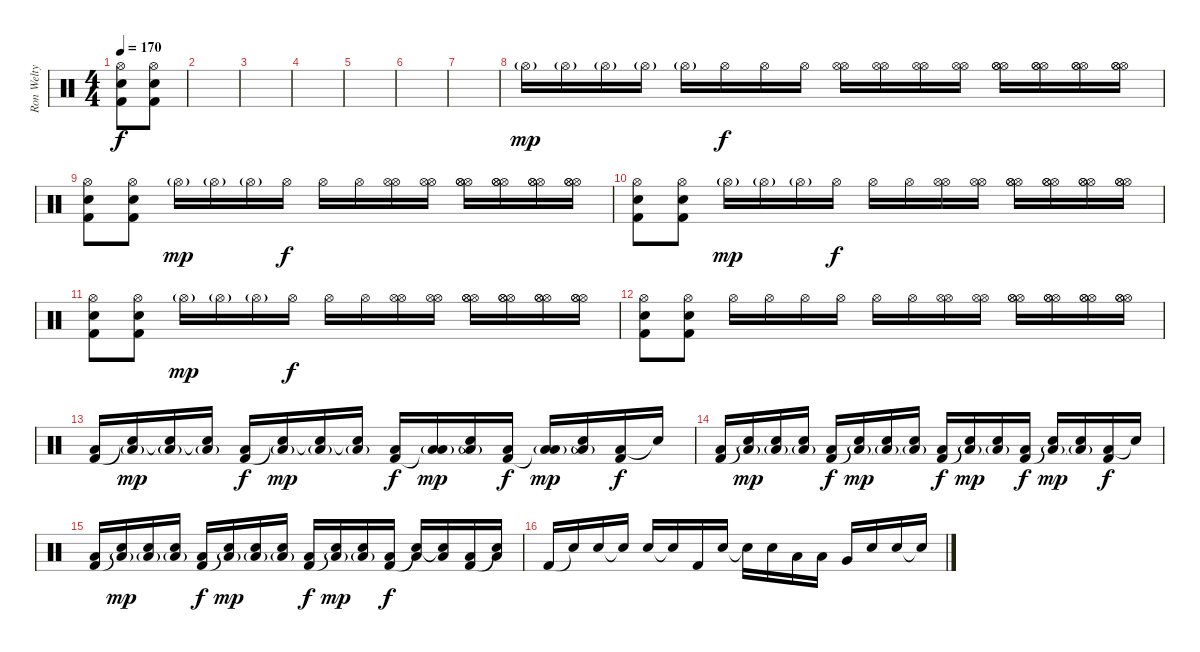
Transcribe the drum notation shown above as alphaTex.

\track ("Ron Welty" "Ron Welty") {instrument percussion}
\staff {score}
\articulation defaults
\ts (4 4)
\tempo 170
\clef neutral
\ks c
("Hi-Hat (open)" "Electric Snare (hit)" "Kick (hit) 2").8{dy f} ("Hi-Hat (open)" "Electric Snare (hit)" "Kick (hit) 2").8 |
|
|
|
|
|
|
"Hi-Hat (open)"{g}.16{dy mp} "Hi-Hat (open)"{g}.16 "Hi-Hat (open)"{g}.16 "Hi-Hat (open)"{g}.16 "Hi-Hat (open)"{g}.16 "Hi-Hat (open)".16{dy f} "Hi-Hat (open)".16 "Hi-Hat (open)".16 ("Hi-Hat (open)" "Hi-Hat (open)").16 ("Hi-Hat (open)" "Hi-Hat (open)").16 ("Hi-Hat (open)" "Hi-Hat (open)").16 ("Hi-Hat (open)" "Hi-Hat (open)").16 ("Hi-Hat (open)" "Hi-Hat (open)" "Hi-Hat (open)").16 ("Hi-Hat (open)" "Hi-Hat (open)" "Hi-Hat (open)").16 ("Hi-Hat (open)" "Hi-Hat (open)" "Hi-Hat (open)").16 ("Hi-Hat (open)" "Hi-Hat (open)" "Hi-Hat (open)").16 |
("Hi-Hat (open)" "Electric Snare (hit)" "Kick (hit) 2").8 ("Hi-Hat (open)" "Electric Snare (hit)" "Kick (hit) 2").8 "Hi-Hat (open)"{g}.16{dy mp} "Hi-Hat (open)"{g}.16 "Hi-Hat (open)"{g}.16 "Hi-Hat (open)".16{dy f} "Hi-Hat (open)".16 "Hi-Hat (open)".16 ("Hi-Hat (open)" "Hi-Hat (open)").16 ("Hi-Hat (open)" "Hi-Hat (open)").16 ("Hi-Hat (open)" "Hi-Hat (open)" "Hi-Hat (open)").16 ("Hi-Hat (open)" "Hi-Hat (open)" "Hi-Hat (open)").16 ("Hi-Hat (open)" "Hi-Hat (open)" "Hi-Hat (open)").16 ("Hi-Hat (open)" "Hi-Hat (open)" "Hi-Hat (open)").16 |
("Hi-Hat (open)" "Electric Snare (hit)" "Kick (hit) 2").8 ("Hi-Hat (open)" "Electric Snare (hit)" "Kick (hit) 2").8 "Hi-Hat (open)"{g}.16{dy mp} "Hi-Hat (open)"{g}.16 "Hi-Hat (open)"{g}.16 "Hi-Hat (open)".16{dy f} "Hi-Hat (open)".16 "Hi-Hat (open)".16 ("Hi-Hat (open)" "Hi-Hat (open)").16 ("Hi-Hat (open)" "Hi-Hat (open)").16 ("Hi-Hat (open)" "Hi-Hat (open)" "Hi-Hat (open)").16 ("Hi-Hat (open)" "Hi-Hat (open)" "Hi-Hat (open)").16 ("Hi-Hat (open)" "Hi-Hat (open)" "Hi-Hat (open)").16 ("Hi-Hat (open)" "Hi-Hat (open)" "Hi-Hat (open)").16 |
("Hi-Hat (open)" "Electric Snare (hit)" "Kick (hit) 2").8 ("Hi-Hat (open)" "Electric Snare (hit)" "Kick (hit) 2").8 "Hi-Hat (open)"{g}.16{dy mp} "Hi-Hat (open)"{g}.16 "Hi-Hat (open)"{g}.16 "Hi-Hat (open)".16{dy f} "Hi-Hat (open)".16 "Hi-Hat (open)".16 ("Hi-Hat (open)" "Hi-Hat (open)").16 ("Hi-Hat (open)" "Hi-Hat (open)").16 ("Hi-Hat (open)" "Hi-Hat (open)" "Hi-Hat (open)").16 ("Hi-Hat (open)" "Hi-Hat (open)" "Hi-Hat (open)").16 ("Hi-Hat (open)" "Hi-Hat (open)" "Hi-Hat (open)").16 ("Hi-Hat (open)" "Hi-Hat (open)" "Hi-Hat (open)").16 |
("Hi-Hat (open)" "Electric Snare (hit)" "Kick (hit) 2").8 ("Hi-Hat (open)" "Electric Snare (hit)" "Kick (hit) 2").8 "Hi-Hat (open)".16 "Hi-Hat (open)".16 "Hi-Hat (open)".16 "Hi-Hat (open)".16 "Hi-Hat (open)".16 "Hi-Hat (open)".16 ("Hi-Hat (open)" "Hi-Hat (open)").16 ("Hi-Hat (open)" "Hi-Hat (open)").16 ("Hi-Hat (open)" "Hi-Hat (open)" "Hi-Hat (open)").16 ("Hi-Hat (open)" "Hi-Hat (open)" "Hi-Hat (open)").16 ("Hi-Hat (open)" "Hi-Hat (open)" "Hi-Hat (open)").16 ("Hi-Hat (open)" "Hi-Hat (open)" "Hi-Hat (open)").16 |
("Low Tom (hit)" "Kick (hit) 2").16 ("Low Tom (hit)"{g} "Snare (hit)"{t}).16{dy mp} ("Low Tom (hit)"{g} "Snare (hit)"{t}).16 ("Low Tom (hit)"{g} "Snare (hit)"{t}).16 ("Low Tom (hit)" "Kick (hit) 2").16{dy f} ("Low Tom (hit)"{g} "Snare (hit)"{t}).16{dy mp} ("Low Tom (hit)"{g} "Snare (hit)"{t}).16 ("Low Tom (hit)"{g} "Snare (hit)"{t}).16 ("Low Tom (hit)" "Kick (hit) 2").16{dy f} ("Low Tom (hit)"{g} "Low Tom (hit)"{t}).16{dy mp} ("Low Tom (hit)"{g} "Snare (hit)"{t}).16 ("Low Tom (hit)" "Kick (hit) 2").16{dy f} ("Low Tom (hit)"{g} "Low Tom (hit)"{t}).16{dy mp} ("Low Tom (hit)"{g} "Snare (hit)"{t}).16 ("Low Tom (hit)" "Kick (hit) 2").16{dy f} "Snare (hit)"{t}.16 |
("Low Tom (hit)" "Kick (hit) 2").16 ("Low Tom (hit)"{g} "Snare (hit)"{t}).16{dy mp} ("Low Tom (hit)"{g} "Snare (hit)"{t}).16 ("Low Tom (hit)"{g} "Snare (hit)"{t}).16 ("Low Tom (hit)" "Kick (hit) 2").16{dy f} ("Low Tom (hit)"{g} "Snare (hit)"{t}).16{dy mp} ("Low Tom (hit)"{g} "Snare (hit)"{t}).16 ("Low Tom (hit)"{g} "Snare (hit)"{t}).16 ("Low Tom (hit)" "Kick (hit) 2").16{dy f} ("Low Tom (hit)"{g} "Snare (hit)"{t}).16{dy mp} ("Low Tom (hit)"{g} "Snare (hit)"{t}).16 ("Low Tom (hit)" "Kick (hit) 2").16{dy f} ("Low Tom (hit)"{g} "Snare (hit)"{t}).16{dy mp} ("Low Tom (hit)"{g} "Snare (hit)"{t}).16 ("Low Tom (hit)" "Kick (hit) 2").16{dy f} "Snare (hit)"{t}.16 |
("Low Tom (hit)" "Kick (hit) 2").16 ("Low Tom (hit)"{g} "Snare (hit)"{t}).16{dy mp} ("Low Tom (hit)"{g} "Snare (hit)"{t}).16 ("Low Tom (hit)"{g} "Snare (hit)"{t}).16 ("Low Tom (hit)" "Kick (hit) 2").16{dy f} ("Low Tom (hit)"{g} "Snare (hit)"{t}).16{dy mp} ("Low Tom (hit)"{g} "Snare (hit)"{t}).16 ("Low Tom (hit)"{g} "Snare (hit)"{t}).16 ("Low Tom (hit)" "Kick (hit) 2").16{dy f} ("Low Tom (hit)"{g} "Snare (hit)"{t}).16{dy mp} ("Low Tom (hit)"{g} "Snare (hit)"{t}).16 ("Low Tom (hit)" "Kick (hit) 2").16{dy f} ("Low Tom (hit)" "Snare (hit)"{t}).16 ("Low Tom (hit)" "Snare (hit)"{t}).16 ("Low Tom (hit)" "Kick (hit) 2").16 ("Low Tom (hit)" "Snare (hit)"{t}).16 |
"Kick (hit) 2".16 "Snare (hit)"{t}.16 "Electric Snare (hit)".16 "Snare (hit)"{t}.16 "Electric Snare (hit)".16 "Snare (hit)"{t}.16 "Kick (hit) 2".16 "Electric Snare (hit)".16 "Snare (hit)"{t}.16 "Electric Snare (hit)".16 "Low Tom (hit)".16 "Low Tom (hit)".16 "Very Low Tom (hit)".16 "Electric Snare (hit)".16 "Electric Snare (hit)".16 "Electric Snare (hit)"{t}.16
